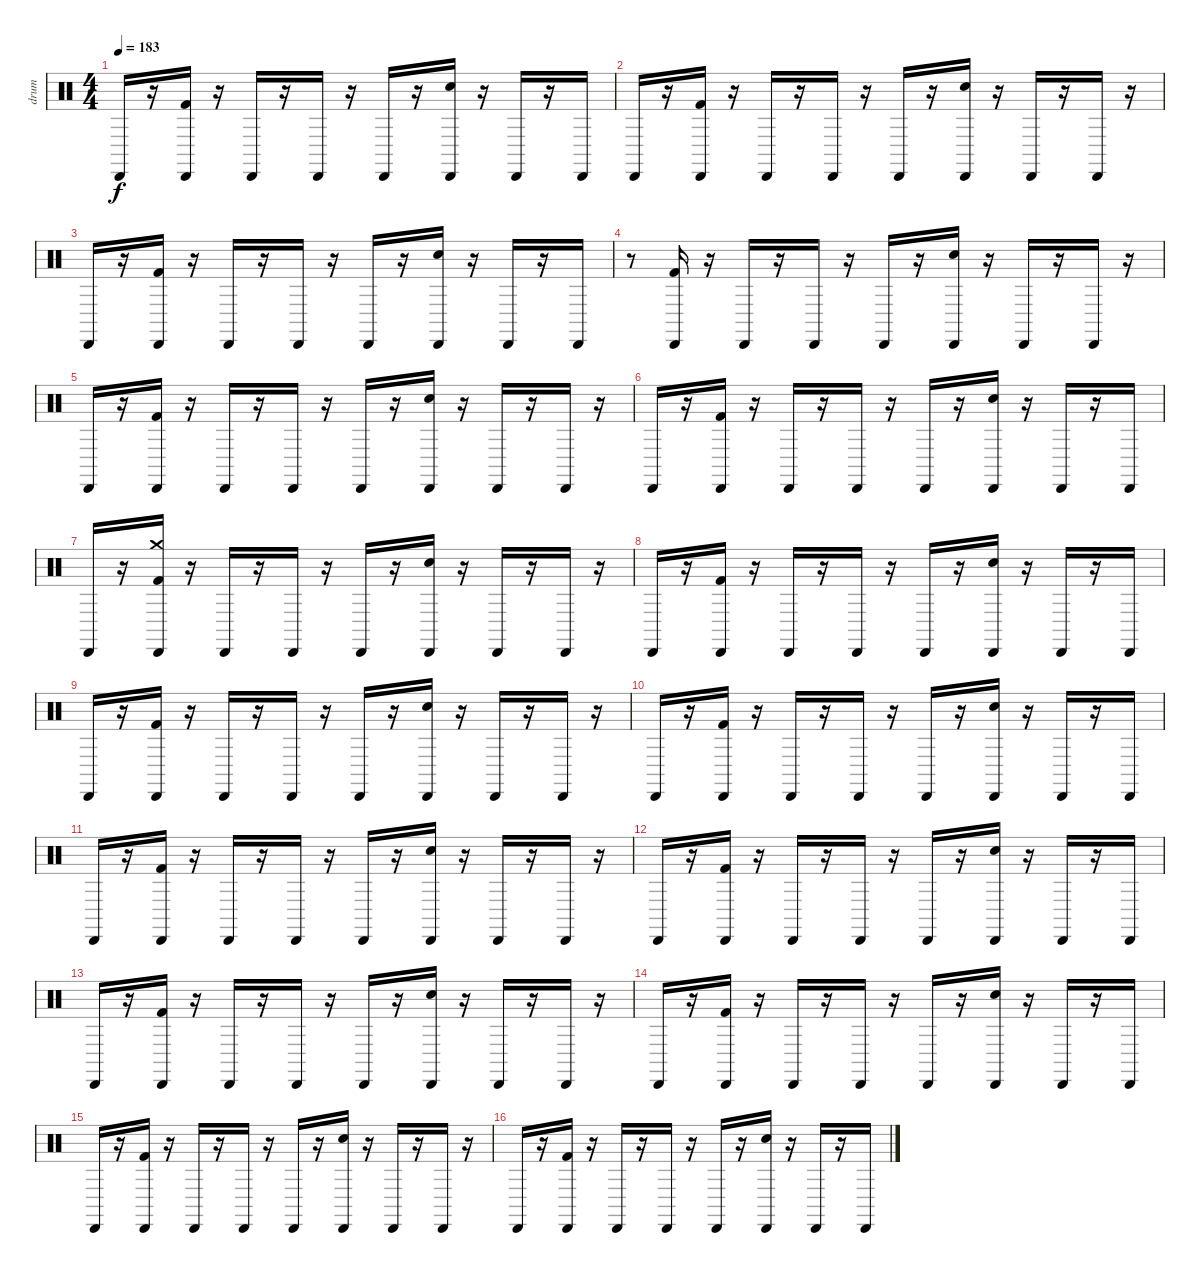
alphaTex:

\track ("drum" "drum") {instrument percussion}
\staff {score}
\articulation defaults
\ts (4 4)
\tempo 183
\clef neutral
\ks c "Cabasa (hit)".16{dy f}
r.16 ("Cabasa (hit)" "Kick (hit) 2").16 r.16 "Cabasa (hit)".16 r.16 "Cabasa (hit)".16 r.16 "Cabasa (hit)".16 r.16 ("Cabasa (hit)" "Snare (hit) 2").16 r.16 "Cabasa (hit)".16 r.16 "Cabasa (hit)".16 |
"Cabasa (hit)".16 r.16 ("Cabasa (hit)" "Kick (hit) 2").16 r.16 "Cabasa (hit)".16 r.16 "Cabasa (hit)".16 r.16 "Cabasa (hit)".16 r.16 ("Cabasa (hit)" "Snare (hit) 2").16 r.16 "Cabasa (hit)".16 r.16 "Cabasa (hit)".16 r.16 |
"Cabasa (hit)".16 r.16 ("Cabasa (hit)" "Kick (hit) 2").16 r.16 "Cabasa (hit)".16 r.16 "Cabasa (hit)".16 r.16 "Cabasa (hit)".16 r.16 ("Cabasa (hit)" "Snare (hit) 2").16 r.16 "Cabasa (hit)".16 r.16 "Cabasa (hit)".16 |
r.8 ("Cabasa (hit)" "Kick (hit) 2").16 r.16 "Cabasa (hit)".16 r.16 "Cabasa (hit)".16 r.16 "Cabasa (hit)".16 r.16 ("Cabasa (hit)" "Snare (hit) 2").16 r.16 "Cabasa (hit)".16 r.16 "Cabasa (hit)".16 r.16 |
"Cabasa (hit)".16 r.16 ("Cabasa (hit)" "Kick (hit) 2").16 r.16 "Cabasa (hit)".16 r.16 "Cabasa (hit)".16 r.16 "Cabasa (hit)".16 r.16 ("Cabasa (hit)" "Snare (hit) 2").16 r.16 "Cabasa (hit)".16 r.16 "Cabasa (hit)".16 r.16 |
"Cabasa (hit)".16 r.16 ("Cabasa (hit)" "Kick (hit) 2").16 r.16 "Cabasa (hit)".16 r.16 "Cabasa (hit)".16 r.16 "Cabasa (hit)".16 r.16 ("Cabasa (hit)" "Snare (hit) 2").16 r.16 "Cabasa (hit)".16 r.16 "Cabasa (hit)".16 |
"Cabasa (hit)".16 r.16 ("Cabasa (hit)" "Kick (hit) 2" "Crash medium (hit)").16 r.16 "Cabasa (hit)".16 r.16 "Cabasa (hit)".16 r.16 "Cabasa (hit)".16 r.16 ("Cabasa (hit)" "Snare (hit) 2").16 r.16 "Cabasa (hit)".16 r.16 "Cabasa (hit)".16 r.16 |
"Cabasa (hit)".16 r.16 ("Cabasa (hit)" "Kick (hit) 2").16 r.16 "Cabasa (hit)".16 r.16 "Cabasa (hit)".16 r.16 "Cabasa (hit)".16 r.16 ("Cabasa (hit)" "Snare (hit) 2").16 r.16 "Cabasa (hit)".16 r.16 "Cabasa (hit)".16 |
"Cabasa (hit)".16 r.16 ("Cabasa (hit)" "Kick (hit) 2").16 r.16 "Cabasa (hit)".16 r.16 "Cabasa (hit)".16 r.16 "Cabasa (hit)".16 r.16 ("Cabasa (hit)" "Snare (hit) 2").16 r.16 "Cabasa (hit)".16 r.16 "Cabasa (hit)".16 r.16 |
"Cabasa (hit)".16 r.16 ("Cabasa (hit)" "Kick (hit) 2").16 r.16 "Cabasa (hit)".16 r.16 "Cabasa (hit)".16 r.16 "Cabasa (hit)".16 r.16 ("Cabasa (hit)" "Snare (hit) 2").16 r.16 "Cabasa (hit)".16 r.16 "Cabasa (hit)".16 |
"Cabasa (hit)".16 r.16 ("Cabasa (hit)" "Kick (hit) 2").16 r.16 "Cabasa (hit)".16 r.16 "Cabasa (hit)".16 r.16 "Cabasa (hit)".16 r.16 ("Cabasa (hit)" "Snare (hit) 2").16 r.16 "Cabasa (hit)".16 r.16 "Cabasa (hit)".16 r.16 |
"Cabasa (hit)".16 r.16 ("Cabasa (hit)" "Kick (hit) 2").16 r.16 "Cabasa (hit)".16 r.16 "Cabasa (hit)".16 r.16 "Cabasa (hit)".16 r.16 ("Cabasa (hit)" "Snare (hit) 2").16 r.16 "Cabasa (hit)".16 r.16 "Cabasa (hit)".16 |
"Cabasa (hit)".16 r.16 ("Cabasa (hit)" "Kick (hit) 2").16 r.16 "Cabasa (hit)".16 r.16 "Cabasa (hit)".16 r.16 "Cabasa (hit)".16 r.16 ("Cabasa (hit)" "Snare (hit) 2").16 r.16 "Cabasa (hit)".16 r.16 "Cabasa (hit)".16 r.16 |
"Cabasa (hit)".16 r.16 ("Cabasa (hit)" "Kick (hit) 2").16 r.16 "Cabasa (hit)".16 r.16 "Cabasa (hit)".16 r.16 "Cabasa (hit)".16 r.16 ("Cabasa (hit)" "Snare (hit) 2").16 r.16 "Cabasa (hit)".16 r.16 "Cabasa (hit)".16 |
"Cabasa (hit)".16 r.16 ("Cabasa (hit)" "Kick (hit) 2").16 r.16 "Cabasa (hit)".16 r.16 "Cabasa (hit)".16 r.16 "Cabasa (hit)".16 r.16 ("Cabasa (hit)" "Snare (hit) 2").16 r.16 "Cabasa (hit)".16 r.16 "Cabasa (hit)".16 r.16 |
"Cabasa (hit)".16 r.16 ("Cabasa (hit)" "Kick (hit) 2").16 r.16 "Cabasa (hit)".16 r.16 "Cabasa (hit)".16 r.16 "Cabasa (hit)".16 r.16 ("Cabasa (hit)" "Snare (hit) 2").16 r.16 "Cabasa (hit)".16 r.16 "Cabasa (hit)".16
